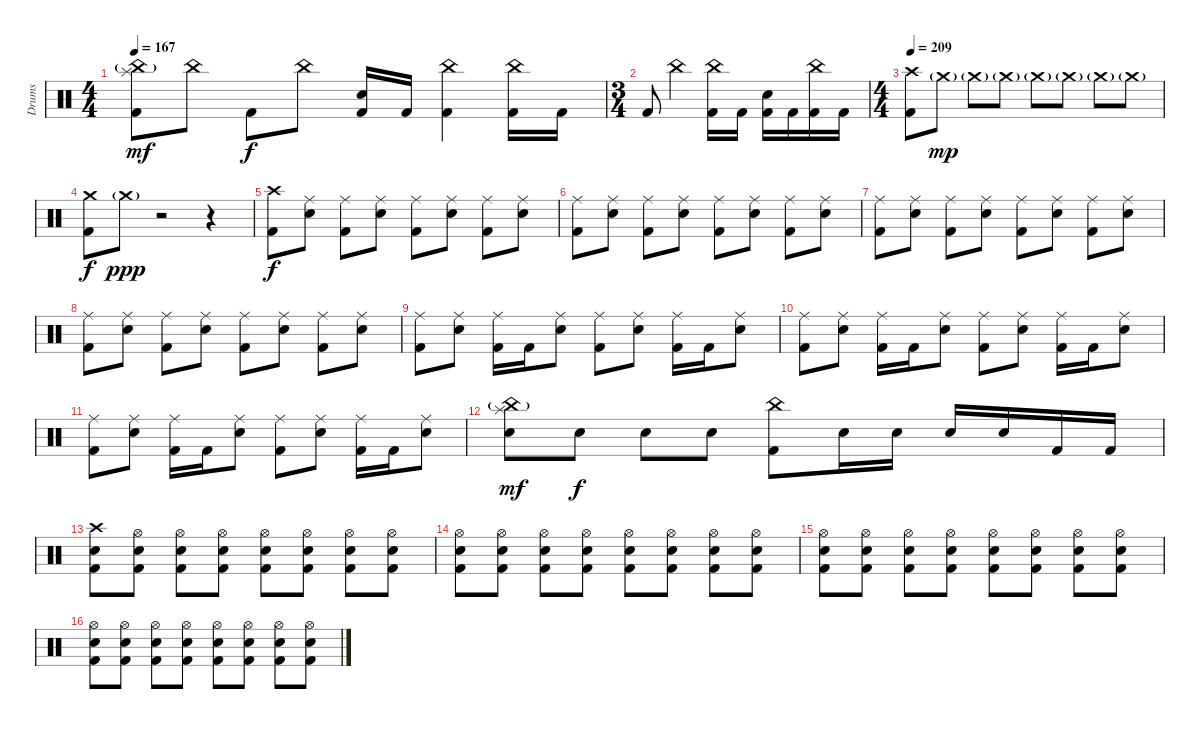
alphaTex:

\track ("Drums" "Drums") {instrument percussion}
\staff {score}
\articulation defaults
\ts (4 4)
\tempo 167
\clef neutral
\ks c
("Splash (hit)" "China (hit)"{g} "Kick (hit) 2").8{dy mf} "China (hit)".8 "Kick (hit) 2".8{dy f} "China (hit)".8 ("Kick (hit) 2" "Electric Snare (hit)").16 "Kick (hit) 2".16 ("China (hit)" "Kick (hit) 2").4 ("China (hit)" "Kick (hit) 2").16 "Kick (hit) 2".16 |
\ts (3 4)
"Kick (hit) 2".8 "China (hit)".4 ("China (hit)" "Kick (hit) 2").16 "Kick (hit) 2".16 ("Kick (hit) 2" "Electric Snare (hit)").16 "Kick (hit) 2".16 ("China (hit)" "Kick (hit) 2").16 "Kick (hit) 2".16 |
\ts (4 4)
\tempo 209
("Crash high (hit)" "Kick (hit) 2").8 "Crash medium (hit)"{g}.8{dy mp} "Crash medium (hit)"{g}.8 "Crash medium (hit)"{g}.8 "Crash medium (hit)"{g}.8 "Crash medium (hit)"{g}.8 "Crash medium (hit)"{g}.8 "Crash medium (hit)"{g}.8 |
("Crash medium (hit)" "Kick (hit) 2").8{dy f} "Crash medium (hit)"{g}.8{dy ppp} r.2 r.4 |
("Crash high (hit)" "Kick (hit) 2").8{dy f} ("Ride (middle)" "Electric Snare (hit)").8 ("Ride (middle)" "Kick (hit) 2").8 ("Ride (middle)" "Electric Snare (hit)").8 ("Ride (middle)" "Kick (hit) 2").8 ("Ride (middle)" "Electric Snare (hit)").8 ("Ride (middle)" "Kick (hit) 2").8 ("Ride (middle)" "Electric Snare (hit)").8 |
("Ride (middle)" "Kick (hit) 2").8 ("Ride (middle)" "Electric Snare (hit)").8 ("Ride (middle)" "Kick (hit) 2").8 ("Ride (middle)" "Electric Snare (hit)").8 ("Ride (middle)" "Kick (hit) 2").8 ("Ride (middle)" "Electric Snare (hit)").8 ("Ride (middle)" "Kick (hit) 2").8 ("Ride (middle)" "Electric Snare (hit)").8 |
("Ride (middle)" "Kick (hit) 2").8 ("Ride (middle)" "Electric Snare (hit)").8 ("Ride (middle)" "Kick (hit) 2").8 ("Ride (middle)" "Electric Snare (hit)").8 ("Ride (middle)" "Kick (hit) 2").8 ("Ride (middle)" "Electric Snare (hit)").8 ("Ride (middle)" "Kick (hit) 2").8 ("Ride (middle)" "Electric Snare (hit)").8 |
("Ride (middle)" "Kick (hit) 2").8 ("Ride (middle)" "Electric Snare (hit)").8 ("Ride (middle)" "Kick (hit) 2").8 ("Ride (middle)" "Electric Snare (hit)").8 ("Ride (middle)" "Kick (hit) 2").8 ("Ride (middle)" "Electric Snare (hit)").8 ("Ride (middle)" "Kick (hit) 2").8 ("Ride (middle)" "Electric Snare (hit)").8 |
("Ride (middle)" "Kick (hit) 2").8 ("Ride (middle)" "Electric Snare (hit)").8 ("Ride (middle)" "Kick (hit) 2").16 "Kick (hit) 2".16 ("Ride (middle)" "Electric Snare (hit)").8 ("Ride (middle)" "Kick (hit) 2").8 ("Ride (middle)" "Electric Snare (hit)").8 ("Ride (middle)" "Kick (hit) 2").16 "Kick (hit) 2".16 ("Ride (middle)" "Electric Snare (hit)").8 |
("Ride (middle)" "Kick (hit) 2").8 ("Ride (middle)" "Electric Snare (hit)").8 ("Ride (middle)" "Kick (hit) 2").16 "Kick (hit) 2".16 ("Ride (middle)" "Electric Snare (hit)").8 ("Ride (middle)" "Kick (hit) 2").8 ("Ride (middle)" "Electric Snare (hit)").8 ("Ride (middle)" "Kick (hit) 2").16 "Kick (hit) 2".16 ("Ride (middle)" "Electric Snare (hit)").8 |
("Ride (middle)" "Kick (hit) 2").8 ("Ride (middle)" "Electric Snare (hit)").8 ("Ride (middle)" "Kick (hit) 2").16 "Kick (hit) 2".16 ("Ride (middle)" "Electric Snare (hit)").8 ("Ride (middle)" "Kick (hit) 2").8 ("Ride (middle)" "Electric Snare (hit)").8 ("Ride (middle)" "Kick (hit) 2").16 "Kick (hit) 2".16 ("Ride (middle)" "Electric Snare (hit)").8 |
("Splash (hit)" "China (hit)"{g} "Electric Snare (hit)").8{dy mf} "Electric Snare (hit)".8{dy f} "Electric Snare (hit)".8 "Electric Snare (hit)".8 ("China (hit)" "Kick (hit) 2").8 "Electric Snare (hit)".16 "Electric Snare (hit)".16 "Electric Snare (hit)".16 "Electric Snare (hit)".16 "Kick (hit) 2".16 "Kick (hit) 2".16 |
("Crash high (hit)" "Kick (hit) 2" "Electric Snare (hit)").8 ("Hi-Hat (open)" "Kick (hit) 2" "Electric Snare (hit)").8 ("Hi-Hat (open)" "Kick (hit) 2" "Electric Snare (hit)").8 ("Hi-Hat (open)" "Kick (hit) 2" "Electric Snare (hit)").8 ("Hi-Hat (open)" "Kick (hit) 2" "Electric Snare (hit)").8 ("Hi-Hat (open)" "Kick (hit) 2" "Electric Snare (hit)").8 ("Hi-Hat (open)" "Kick (hit) 2" "Electric Snare (hit)").8 ("Hi-Hat (open)" "Kick (hit) 2" "Electric Snare (hit)").8 |
("Hi-Hat (open)" "Kick (hit) 2" "Electric Snare (hit)").8 ("Hi-Hat (open)" "Kick (hit) 2" "Electric Snare (hit)").8 ("Hi-Hat (open)" "Kick (hit) 2" "Electric Snare (hit)").8 ("Hi-Hat (open)" "Kick (hit) 2" "Electric Snare (hit)").8 ("Hi-Hat (open)" "Kick (hit) 2" "Electric Snare (hit)").8 ("Hi-Hat (open)" "Kick (hit) 2" "Electric Snare (hit)").8 ("Hi-Hat (open)" "Kick (hit) 2" "Electric Snare (hit)").8 ("Hi-Hat (open)" "Kick (hit) 2" "Electric Snare (hit)").8 |
("Hi-Hat (open)" "Kick (hit) 2" "Electric Snare (hit)").8 ("Hi-Hat (open)" "Kick (hit) 2" "Electric Snare (hit)").8 ("Hi-Hat (open)" "Kick (hit) 2" "Electric Snare (hit)").8 ("Hi-Hat (open)" "Kick (hit) 2" "Electric Snare (hit)").8 ("Hi-Hat (open)" "Kick (hit) 2" "Electric Snare (hit)").8 ("Hi-Hat (open)" "Kick (hit) 2" "Electric Snare (hit)").8 ("Hi-Hat (open)" "Kick (hit) 2" "Electric Snare (hit)").8 ("Hi-Hat (open)" "Kick (hit) 2" "Electric Snare (hit)").8 |
("Hi-Hat (open)" "Kick (hit) 2" "Electric Snare (hit)").8 ("Hi-Hat (open)" "Kick (hit) 2" "Electric Snare (hit)").8 ("Hi-Hat (open)" "Kick (hit) 2" "Electric Snare (hit)").8 ("Hi-Hat (open)" "Kick (hit) 2" "Electric Snare (hit)").8 ("Hi-Hat (open)" "Kick (hit) 2" "Electric Snare (hit)").8 ("Hi-Hat (open)" "Kick (hit) 2" "Electric Snare (hit)").8 ("Hi-Hat (open)" "Kick (hit) 2" "Electric Snare (hit)").8 ("Hi-Hat (open)" "Kick (hit) 2" "Electric Snare (hit)").8
